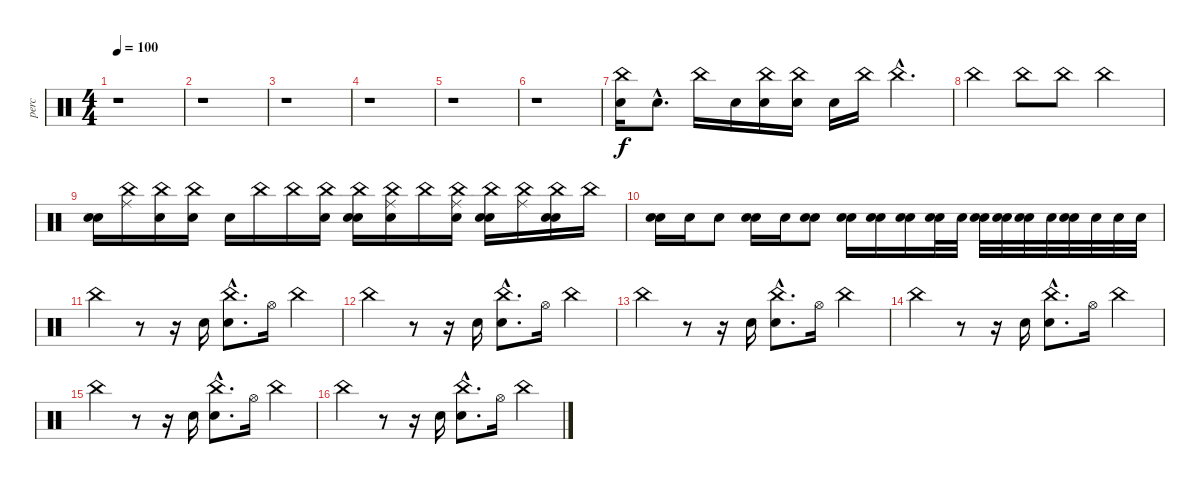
\track ("perc" "perc") {instrument percussion}
\staff {score}
\articulation defaults
\ts (4 4)
\tempo 100
\clef neutral
\ks c
r.1{dy f} |
r.1 |
r.1 |
r.1 |
r.1 |
r.1 |
("Electric Snare (hit)" "China (hit)").16 "Electric Snare (hit)"{hac}.8{d} "China (hit)".16 "Electric Snare (hit)".16 ("Electric Snare (hit)" "China (hit)").16 ("Electric Snare (hit)" "China (hit)").16 "Electric Snare (hit)".16 "China (hit)".16 "China (hit)"{hac}.4{d} |
"China (hit)".4 "China (hit)".8 "China (hit)".8 "China (hit)".2 |
("Electric Snare (hit)" "Snare (hit) 2").16 ("China (hit)" "Ride (middle)").16 ("Electric Snare (hit)" "China (hit)").16 ("Electric Snare (hit)" "China (hit)").16 "Snare (hit) 2".16 "China (hit)".16 "China (hit)".16 ("Electric Snare (hit)" "China (hit)").16 ("Electric Snare (hit)" "China (hit)" "Snare (hit) 2").16 ("Electric Snare (hit)" "China (hit)" "Ride (middle)").16 "China (hit)".16 ("Electric Snare (hit)" "China (hit)" "Ride (middle)").16 ("Electric Snare (hit)" "China (hit)" "Snare (hit) 2").16 ("China (hit)" "Ride (middle)").16 ("Electric Snare (hit)" "China (hit)" "Snare (hit) 2").16 "China (hit)".16 |
("Electric Snare (hit)" "Snare (hit) 2").16 "Electric Snare (hit)".16 "Electric Snare (hit)".8 ("Electric Snare (hit)" "Snare (hit) 2").16 "Electric Snare (hit)".16 ("Electric Snare (hit)" "Snare (hit) 2").8 ("Electric Snare (hit)" "Snare (hit) 2").16 ("Electric Snare (hit)" "Snare (hit) 2").16 ("Electric Snare (hit)" "Snare (hit) 2").16 ("Electric Snare (hit)" "Snare (hit) 2").32 "Electric Snare (hit)".32 ("Electric Snare (hit)" "Snare (hit) 2").32 ("Electric Snare (hit)" "Snare (hit) 2").32 ("Electric Snare (hit)" "Snare (hit) 2").32 "Snare (hit) 2".32 ("Electric Snare (hit)" "Snare (hit) 2").32 "Snare (hit) 2".32 "Snare (hit) 2".32 "Snare (hit) 2".32 |
"China (hit)".4 r.8 r.16 "Hand Clap (hit)".16 ("Snare (hit) 2"{hac} "China (hit)"{hac}).8{d} "Hi-Hat (open)".16 "China (hit)".4 |
"China (hit)".4 r.8 r.16 "Hand Clap (hit)".16 ("Snare (hit) 2"{hac} "China (hit)"{hac}).8{d} "Hi-Hat (open)".16 "China (hit)".4 |
"China (hit)".4 r.8 r.16 "Hand Clap (hit)".16 ("Snare (hit) 2"{hac} "China (hit)"{hac}).8{d} "Hi-Hat (open)".16 "China (hit)".4 |
"China (hit)".4 r.8 r.16 "Hand Clap (hit)".16 ("Snare (hit) 2"{hac} "China (hit)"{hac}).8{d} "Hi-Hat (open)".16 "China (hit)".4 |
"China (hit)".4 r.8 r.16 "Hand Clap (hit)".16 ("Snare (hit) 2"{hac} "China (hit)"{hac}).8{d} "Hi-Hat (open)".16 "China (hit)".4 |
"China (hit)".4 r.8 r.16 "Hand Clap (hit)".16 ("Snare (hit) 2"{hac} "China (hit)"{hac}).8{d} "Hi-Hat (open)".16 "China (hit)".4
